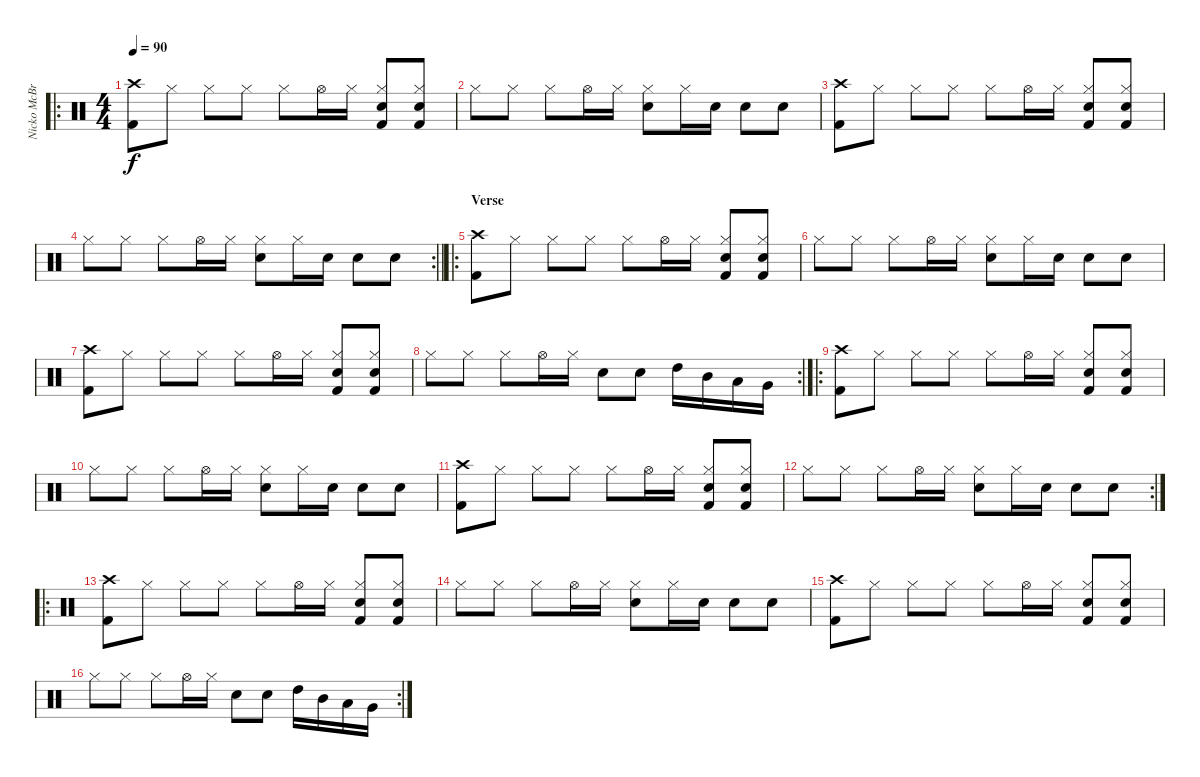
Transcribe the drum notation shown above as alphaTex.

\track ("Nicko McBrain" "Nicko McBr") {instrument percussion}
\staff {score}
\articulation defaults
\ro
\ts (4 4)
\tempo 90
\clef neutral
\ks c
("Crash high (hit)" "Kick (hit) 2").8{dy f} "Hi-Hat (closed)".8 "Hi-Hat (closed)".8 "Hi-Hat (closed)".8 "Hi-Hat (closed)".8 "Hi-Hat (open)".16 "Hi-Hat (closed)".16 ("Hi-Hat (closed)" "Kick (hit) 2" "Snare (hit) 2").8 ("Hi-Hat (closed)" "Kick (hit) 2" "Snare (hit) 2").8 |
"Hi-Hat (closed)".8 "Hi-Hat (closed)".8 "Hi-Hat (closed)".8 "Hi-Hat (open)".16 "Hi-Hat (closed)".16 ("Hi-Hat (closed)" "Snare (hit) 2").8 "Hi-Hat (closed)".16 "Snare (hit) 2".16 "Snare (hit) 2".8 "Snare (hit) 2".8 |
("Crash high (hit)" "Kick (hit) 2").8 "Hi-Hat (closed)".8 "Hi-Hat (closed)".8 "Hi-Hat (closed)".8 "Hi-Hat (closed)".8 "Hi-Hat (open)".16 "Hi-Hat (closed)".16 ("Hi-Hat (closed)" "Kick (hit) 2" "Snare (hit) 2").8 ("Hi-Hat (closed)" "Kick (hit) 2" "Snare (hit) 2").8 |
\rc 2
\barLineRight lightlight "Hi-Hat (closed)".8 "Hi-Hat (closed)".8 "Hi-Hat (closed)".8 "Hi-Hat (open)".16 "Hi-Hat (closed)".16
("Hi-Hat (closed)" "Snare (hit) 2").8 "Hi-Hat (closed)".16 "Snare (hit) 2".16 "Snare (hit) 2".8 "Snare (hit) 2".8 |
\ro
\section ("" "Verse")
("Crash high (hit)" "Kick (hit) 2").8 "Hi-Hat (closed)".8 "Hi-Hat (closed)".8 "Hi-Hat (closed)".8 "Hi-Hat (closed)".8 "Hi-Hat (open)".16 "Hi-Hat (closed)".16 ("Hi-Hat (closed)" "Kick (hit) 2" "Snare (hit) 2").8 ("Hi-Hat (closed)" "Kick (hit) 2" "Snare (hit) 2").8 |
"Hi-Hat (closed)".8 "Hi-Hat (closed)".8 "Hi-Hat (closed)".8 "Hi-Hat (open)".16 "Hi-Hat (closed)".16 ("Hi-Hat (closed)" "Snare (hit) 2").8 "Hi-Hat (closed)".16 "Snare (hit) 2".16 "Snare (hit) 2".8 "Snare (hit) 2".8 |
("Crash high (hit)" "Kick (hit) 2").8 "Hi-Hat (closed)".8 "Hi-Hat (closed)".8 "Hi-Hat (closed)".8 "Hi-Hat (closed)".8 "Hi-Hat (open)".16 "Hi-Hat (closed)".16 ("Hi-Hat (closed)" "Kick (hit) 2" "Snare (hit) 2").8 ("Hi-Hat (closed)" "Kick (hit) 2" "Snare (hit) 2").8 |
\rc 2 "Hi-Hat (closed)".8 "Hi-Hat (closed)".8 "Hi-Hat (closed)".8 "Hi-Hat (open)".16 "Hi-Hat (closed)".16 "Snare (hit) 2".8 "Snare (hit) 2".8 "High Tom (hit)".16 "Mid Tom (hit)".16 "Low Tom (hit)".16 "Very Low Tom (hit)".16
|
\ro
("Crash high (hit)" "Kick (hit) 2").8 "Hi-Hat (closed)".8 "Hi-Hat (closed)".8 "Hi-Hat (closed)".8 "Hi-Hat (closed)".8 "Hi-Hat (open)".16 "Hi-Hat (closed)".16 ("Hi-Hat (closed)" "Kick (hit) 2" "Snare (hit) 2").8 ("Hi-Hat (closed)" "Kick (hit) 2" "Snare (hit) 2").8 |
"Hi-Hat (closed)".8 "Hi-Hat (closed)".8 "Hi-Hat (closed)".8 "Hi-Hat (open)".16 "Hi-Hat (closed)".16 ("Hi-Hat (closed)" "Snare (hit) 2").8 "Hi-Hat (closed)".16 "Snare (hit) 2".16 "Snare (hit) 2".8 "Snare (hit) 2".8 |
("Crash high (hit)" "Kick (hit) 2").8 "Hi-Hat (closed)".8 "Hi-Hat (closed)".8 "Hi-Hat (closed)".8 "Hi-Hat (closed)".8 "Hi-Hat (open)".16 "Hi-Hat (closed)".16 ("Hi-Hat (closed)" "Kick (hit) 2" "Snare (hit) 2").8 ("Hi-Hat (closed)" "Kick (hit) 2" "Snare (hit) 2").8 |
\rc 2 "Hi-Hat (closed)".8 "Hi-Hat (closed)".8 "Hi-Hat (closed)".8 "Hi-Hat (open)".16 "Hi-Hat (closed)".16
("Hi-Hat (closed)" "Snare (hit) 2").8 "Hi-Hat (closed)".16 "Snare (hit) 2".16 "Snare (hit) 2".8 "Snare (hit) 2".8 |
\ro
("Crash high (hit)" "Kick (hit) 2").8 "Hi-Hat (closed)".8 "Hi-Hat (closed)".8 "Hi-Hat (closed)".8 "Hi-Hat (closed)".8 "Hi-Hat (open)".16 "Hi-Hat (closed)".16 ("Hi-Hat (closed)" "Kick (hit) 2" "Snare (hit) 2").8 ("Hi-Hat (closed)" "Kick (hit) 2" "Snare (hit) 2").8 |
"Hi-Hat (closed)".8 "Hi-Hat (closed)".8 "Hi-Hat (closed)".8 "Hi-Hat (open)".16 "Hi-Hat (closed)".16 ("Hi-Hat (closed)" "Snare (hit) 2").8 "Hi-Hat (closed)".16 "Snare (hit) 2".16 "Snare (hit) 2".8 "Snare (hit) 2".8 |
("Crash high (hit)" "Kick (hit) 2").8 "Hi-Hat (closed)".8 "Hi-Hat (closed)".8 "Hi-Hat (closed)".8 "Hi-Hat (closed)".8 "Hi-Hat (open)".16 "Hi-Hat (closed)".16 ("Hi-Hat (closed)" "Kick (hit) 2" "Snare (hit) 2").8 ("Hi-Hat (closed)" "Kick (hit) 2" "Snare (hit) 2").8 |
\rc 2 "Hi-Hat (closed)".8 "Hi-Hat (closed)".8 "Hi-Hat (closed)".8 "Hi-Hat (open)".16 "Hi-Hat (closed)".16 "Snare (hit) 2".8 "Snare (hit) 2".8 "High Tom (hit)".16 "Mid Tom (hit)".16 "Low Tom (hit)".16 "Very Low Tom (hit)".16
